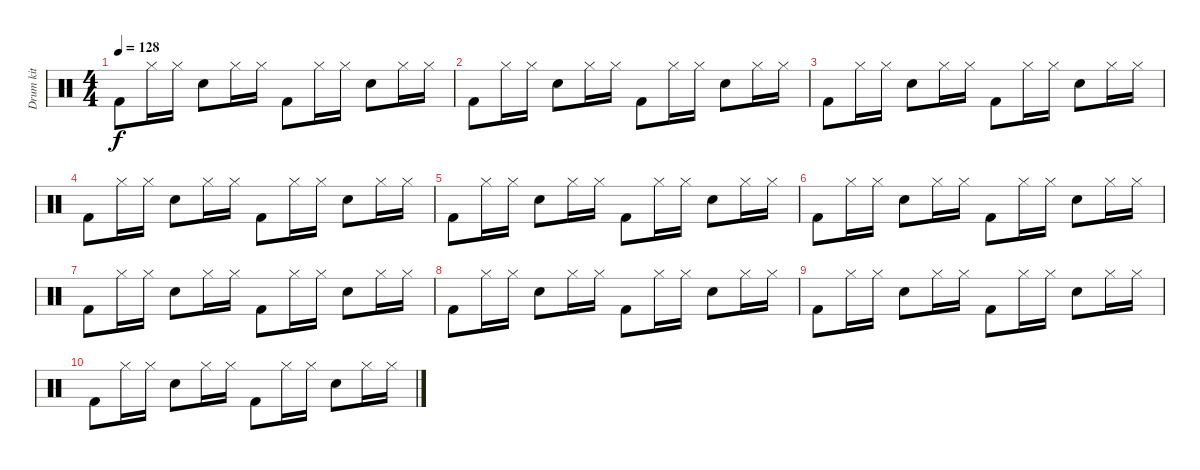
\track ("Drum kit" "Drum kit") {instrument percussion}
\staff {score}
\articulation defaults
\ts (4 4)
\tempo 128
\clef neutral
\ks c "Kick (hit) 2".8{dy f} "Hi-Hat (closed)".16 "Hi-Hat (closed)".16 "Snare (hit) 2".8 "Hi-Hat (closed)".16 "Hi-Hat (closed)".16 "Kick (hit) 2".8 "Hi-Hat (closed)".16 "Hi-Hat (closed)".16 "Snare (hit) 2".8 "Hi-Hat (closed)".16 "Hi-Hat (closed)".16
|
"Kick (hit) 2".8 "Hi-Hat (closed)".16 "Hi-Hat (closed)".16 "Snare (hit) 2".8 "Hi-Hat (closed)".16 "Hi-Hat (closed)".16 "Kick (hit) 2".8 "Hi-Hat (closed)".16 "Hi-Hat (closed)".16 "Snare (hit) 2".8 "Hi-Hat (closed)".16 "Hi-Hat (closed)".16 |
"Kick (hit) 2".8 "Hi-Hat (closed)".16 "Hi-Hat (closed)".16 "Snare (hit) 2".8 "Hi-Hat (closed)".16 "Hi-Hat (closed)".16 "Kick (hit) 2".8 "Hi-Hat (closed)".16 "Hi-Hat (closed)".16 "Snare (hit) 2".8 "Hi-Hat (closed)".16 "Hi-Hat (closed)".16 |
"Kick (hit) 2".8 "Hi-Hat (closed)".16 "Hi-Hat (closed)".16 "Snare (hit) 2".8 "Hi-Hat (closed)".16 "Hi-Hat (closed)".16 "Kick (hit) 2".8 "Hi-Hat (closed)".16 "Hi-Hat (closed)".16 "Snare (hit) 2".8 "Hi-Hat (closed)".16 "Hi-Hat (closed)".16 |
"Kick (hit) 2".8 "Hi-Hat (closed)".16 "Hi-Hat (closed)".16 "Snare (hit) 2".8 "Hi-Hat (closed)".16 "Hi-Hat (closed)".16 "Kick (hit) 2".8 "Hi-Hat (closed)".16 "Hi-Hat (closed)".16 "Snare (hit) 2".8 "Hi-Hat (closed)".16 "Hi-Hat (closed)".16 |
"Kick (hit) 2".8 "Hi-Hat (closed)".16 "Hi-Hat (closed)".16 "Snare (hit) 2".8 "Hi-Hat (closed)".16 "Hi-Hat (closed)".16 "Kick (hit) 2".8 "Hi-Hat (closed)".16 "Hi-Hat (closed)".16 "Snare (hit) 2".8 "Hi-Hat (closed)".16 "Hi-Hat (closed)".16 |
"Kick (hit) 2".8 "Hi-Hat (closed)".16 "Hi-Hat (closed)".16 "Snare (hit) 2".8 "Hi-Hat (closed)".16 "Hi-Hat (closed)".16 "Kick (hit) 2".8 "Hi-Hat (closed)".16 "Hi-Hat (closed)".16 "Snare (hit) 2".8 "Hi-Hat (closed)".16 "Hi-Hat (closed)".16 |
"Kick (hit) 2".8 "Hi-Hat (closed)".16 "Hi-Hat (closed)".16 "Snare (hit) 2".8 "Hi-Hat (closed)".16 "Hi-Hat (closed)".16 "Kick (hit) 2".8 "Hi-Hat (closed)".16 "Hi-Hat (closed)".16 "Snare (hit) 2".8 "Hi-Hat (closed)".16 "Hi-Hat (closed)".16 |
"Kick (hit) 2".8 "Hi-Hat (closed)".16 "Hi-Hat (closed)".16 "Snare (hit) 2".8 "Hi-Hat (closed)".16 "Hi-Hat (closed)".16 "Kick (hit) 2".8 "Hi-Hat (closed)".16 "Hi-Hat (closed)".16 "Snare (hit) 2".8 "Hi-Hat (closed)".16 "Hi-Hat (closed)".16 |
"Kick (hit) 2".8 "Hi-Hat (closed)".16 "Hi-Hat (closed)".16 "Snare (hit) 2".8 "Hi-Hat (closed)".16 "Hi-Hat (closed)".16 "Kick (hit) 2".8 "Hi-Hat (closed)".16 "Hi-Hat (closed)".16 "Snare (hit) 2".8 "Hi-Hat (closed)".16 "Hi-Hat (closed)".16
